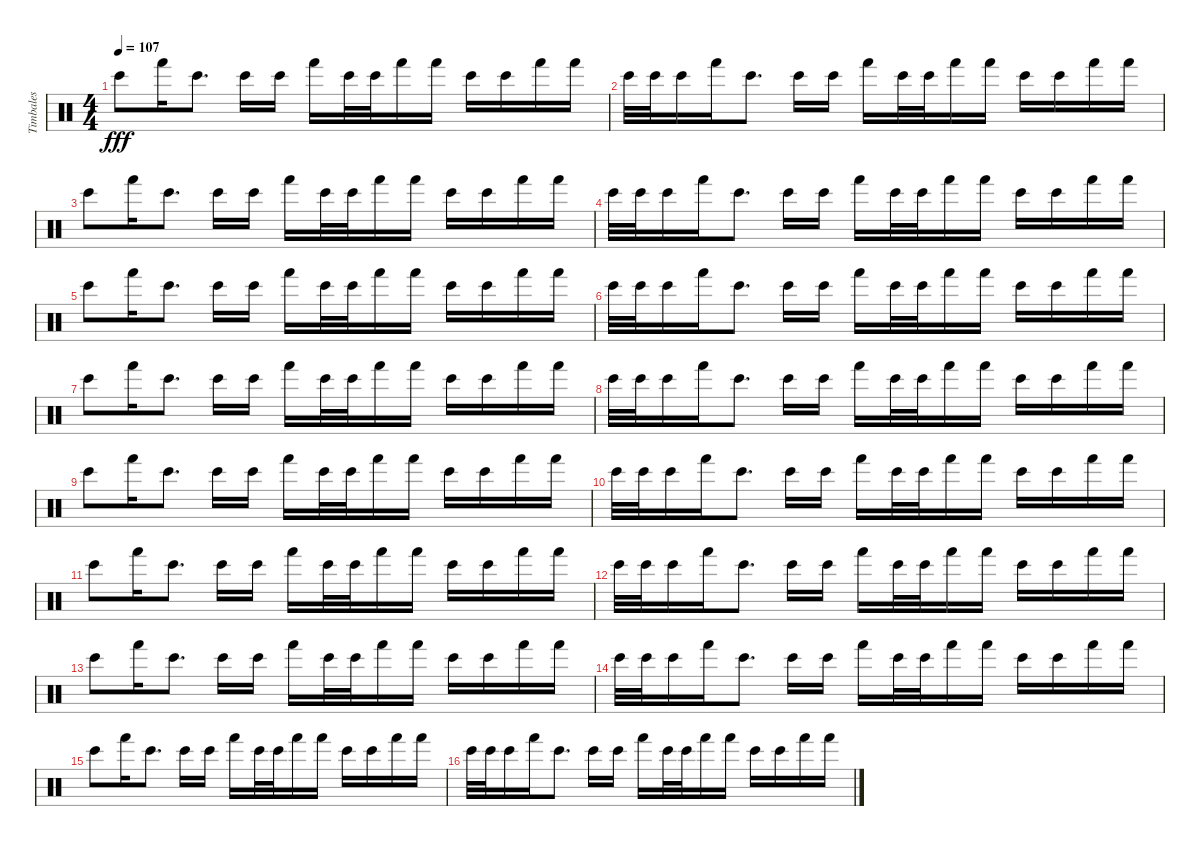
\track ("Timbales" "Timbales") {instrument percussion}
\staff {score}
\articulation defaults
\ts (4 4)
\tempo 107
\clef neutral
\ks c "Bongo High (hit)".8{dy fff} "Hand (hit)".16 "Bongo High (hit)".8{d} "Bongo High (hit)".16 "Bongo High (hit)".16 "Hand (hit)".16 "Bongo High (hit)".32 "Bongo High (hit)".32 "Hand (hit)".16 "Hand (hit)".16 "Bongo High (hit)".16 "Bongo High (hit)".16 "Hand (hit)".16 "Hand (hit)".16
|
"Bongo High (hit)".32 "Bongo High (hit)".32 "Bongo High (hit)".16 "Hand (hit)".16 "Bongo High (hit)".8{d} "Bongo High (hit)".16 "Bongo High (hit)".16 "Hand (hit)".16 "Bongo High (hit)".32 "Bongo High (hit)".32 "Hand (hit)".16 "Hand (hit)".16 "Bongo High (hit)".16 "Bongo High (hit)".16 "Hand (hit)".16 "Hand (hit)".16 |
"Bongo High (hit)".8 "Hand (hit)".16 "Bongo High (hit)".8{d} "Bongo High (hit)".16 "Bongo High (hit)".16 "Hand (hit)".16 "Bongo High (hit)".32 "Bongo High (hit)".32 "Hand (hit)".16 "Hand (hit)".16 "Bongo High (hit)".16 "Bongo High (hit)".16 "Hand (hit)".16 "Hand (hit)".16 |
"Bongo High (hit)".32 "Bongo High (hit)".32 "Bongo High (hit)".16 "Hand (hit)".16 "Bongo High (hit)".8{d} "Bongo High (hit)".16 "Bongo High (hit)".16 "Hand (hit)".16 "Bongo High (hit)".32 "Bongo High (hit)".32 "Hand (hit)".16 "Hand (hit)".16 "Bongo High (hit)".16 "Bongo High (hit)".16 "Hand (hit)".16 "Hand (hit)".16 |
"Bongo High (hit)".8 "Hand (hit)".16 "Bongo High (hit)".8{d} "Bongo High (hit)".16 "Bongo High (hit)".16 "Hand (hit)".16 "Bongo High (hit)".32 "Bongo High (hit)".32 "Hand (hit)".16 "Hand (hit)".16 "Bongo High (hit)".16 "Bongo High (hit)".16 "Hand (hit)".16 "Hand (hit)".16 |
"Bongo High (hit)".32 "Bongo High (hit)".32 "Bongo High (hit)".16 "Hand (hit)".16 "Bongo High (hit)".8{d} "Bongo High (hit)".16 "Bongo High (hit)".16 "Hand (hit)".16 "Bongo High (hit)".32 "Bongo High (hit)".32 "Hand (hit)".16 "Hand (hit)".16 "Bongo High (hit)".16 "Bongo High (hit)".16 "Hand (hit)".16 "Hand (hit)".16 |
"Bongo High (hit)".8 "Hand (hit)".16 "Bongo High (hit)".8{d} "Bongo High (hit)".16 "Bongo High (hit)".16 "Hand (hit)".16 "Bongo High (hit)".32 "Bongo High (hit)".32 "Hand (hit)".16 "Hand (hit)".16 "Bongo High (hit)".16 "Bongo High (hit)".16 "Hand (hit)".16 "Hand (hit)".16 |
"Bongo High (hit)".32 "Bongo High (hit)".32 "Bongo High (hit)".16 "Hand (hit)".16 "Bongo High (hit)".8{d} "Bongo High (hit)".16 "Bongo High (hit)".16 "Hand (hit)".16 "Bongo High (hit)".32 "Bongo High (hit)".32 "Hand (hit)".16 "Hand (hit)".16 "Bongo High (hit)".16 "Bongo High (hit)".16 "Hand (hit)".16 "Hand (hit)".16 |
"Bongo High (hit)".8 "Hand (hit)".16 "Bongo High (hit)".8{d} "Bongo High (hit)".16 "Bongo High (hit)".16 "Hand (hit)".16 "Bongo High (hit)".32 "Bongo High (hit)".32 "Hand (hit)".16 "Hand (hit)".16 "Bongo High (hit)".16 "Bongo High (hit)".16 "Hand (hit)".16 "Hand (hit)".16 |
"Bongo High (hit)".32 "Bongo High (hit)".32 "Bongo High (hit)".16 "Hand (hit)".16 "Bongo High (hit)".8{d} "Bongo High (hit)".16 "Bongo High (hit)".16 "Hand (hit)".16 "Bongo High (hit)".32 "Bongo High (hit)".32 "Hand (hit)".16 "Hand (hit)".16 "Bongo High (hit)".16 "Bongo High (hit)".16 "Hand (hit)".16 "Hand (hit)".16 |
"Bongo High (hit)".8 "Hand (hit)".16 "Bongo High (hit)".8{d} "Bongo High (hit)".16 "Bongo High (hit)".16 "Hand (hit)".16 "Bongo High (hit)".32 "Bongo High (hit)".32 "Hand (hit)".16 "Hand (hit)".16 "Bongo High (hit)".16 "Bongo High (hit)".16 "Hand (hit)".16 "Hand (hit)".16 |
"Bongo High (hit)".32 "Bongo High (hit)".32 "Bongo High (hit)".16 "Hand (hit)".16 "Bongo High (hit)".8{d} "Bongo High (hit)".16 "Bongo High (hit)".16 "Hand (hit)".16 "Bongo High (hit)".32 "Bongo High (hit)".32 "Hand (hit)".16 "Hand (hit)".16 "Bongo High (hit)".16 "Bongo High (hit)".16 "Hand (hit)".16 "Hand (hit)".16 |
"Bongo High (hit)".8 "Hand (hit)".16 "Bongo High (hit)".8{d} "Bongo High (hit)".16 "Bongo High (hit)".16 "Hand (hit)".16 "Bongo High (hit)".32 "Bongo High (hit)".32 "Hand (hit)".16 "Hand (hit)".16 "Bongo High (hit)".16 "Bongo High (hit)".16 "Hand (hit)".16 "Hand (hit)".16 |
"Bongo High (hit)".32 "Bongo High (hit)".32 "Bongo High (hit)".16 "Hand (hit)".16 "Bongo High (hit)".8{d} "Bongo High (hit)".16 "Bongo High (hit)".16 "Hand (hit)".16 "Bongo High (hit)".32 "Bongo High (hit)".32 "Hand (hit)".16 "Hand (hit)".16 "Bongo High (hit)".16 "Bongo High (hit)".16 "Hand (hit)".16 "Hand (hit)".16 |
"Bongo High (hit)".8 "Hand (hit)".16 "Bongo High (hit)".8{d} "Bongo High (hit)".16 "Bongo High (hit)".16 "Hand (hit)".16 "Bongo High (hit)".32 "Bongo High (hit)".32 "Hand (hit)".16 "Hand (hit)".16 "Bongo High (hit)".16 "Bongo High (hit)".16 "Hand (hit)".16 "Hand (hit)".16 |
"Bongo High (hit)".32 "Bongo High (hit)".32 "Bongo High (hit)".16 "Hand (hit)".16 "Bongo High (hit)".8{d} "Bongo High (hit)".16 "Bongo High (hit)".16 "Hand (hit)".16 "Bongo High (hit)".32 "Bongo High (hit)".32 "Hand (hit)".16 "Hand (hit)".16 "Bongo High (hit)".16 "Bongo High (hit)".16 "Hand (hit)".16 "Hand (hit)".16
